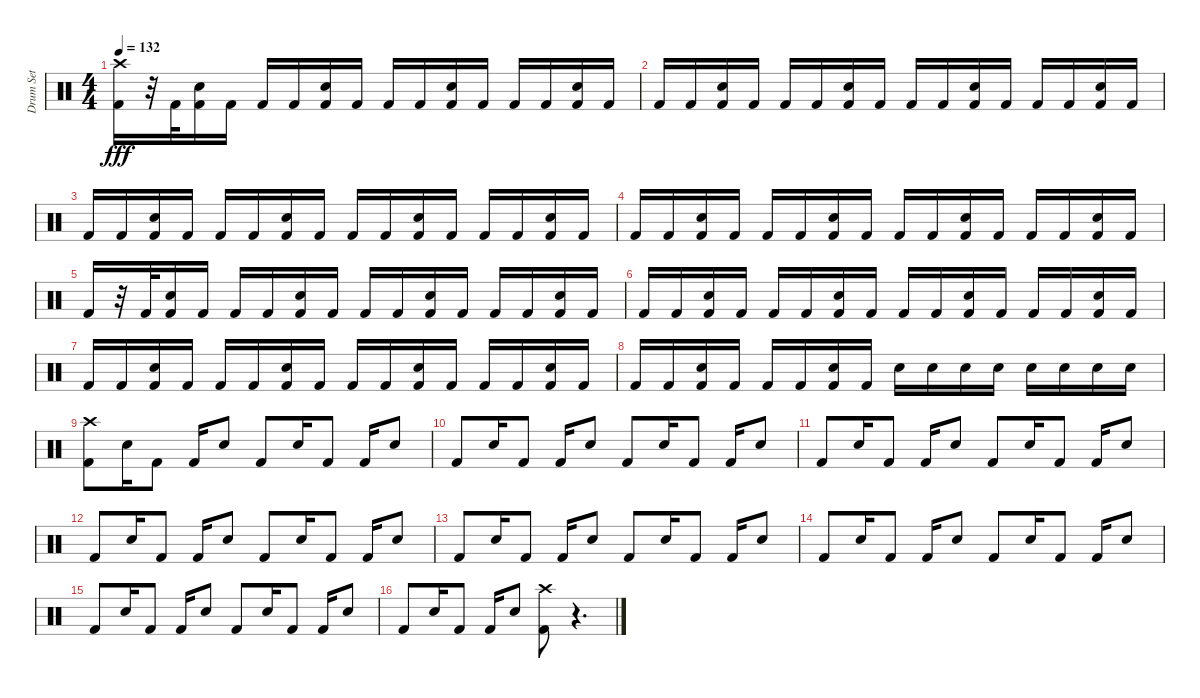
\track ("Drum Set" "Drum Set") {instrument percussion}
\staff {score}
\articulation defaults
\ts (4 4)
\tempo 132
\clef neutral
\ks c
("Crash high (hit)" "Kick (hit) 2").16{dy fff} r.32 "Kick (hit) 2".32 ("Electric Snare (hit)" "Kick (hit) 2").16 "Kick (hit) 2".16 "Kick (hit) 2".16 "Kick (hit) 2".16 ("Electric Snare (hit)" "Kick (hit) 2").16 "Kick (hit) 2".16 "Kick (hit) 2".16 "Kick (hit) 2".16 ("Electric Snare (hit)" "Kick (hit) 2").16 "Kick (hit) 2".16 "Kick (hit) 2".16 "Kick (hit) 2".16 ("Electric Snare (hit)" "Kick (hit) 2").16 "Kick (hit) 2".16 |
"Kick (hit) 2".16 "Kick (hit) 2".16 ("Electric Snare (hit)" "Kick (hit) 2").16 "Kick (hit) 2".16 "Kick (hit) 2".16 "Kick (hit) 2".16 ("Electric Snare (hit)" "Kick (hit) 2").16 "Kick (hit) 2".16 "Kick (hit) 2".16 "Kick (hit) 2".16 ("Electric Snare (hit)" "Kick (hit) 2").16 "Kick (hit) 2".16 "Kick (hit) 2".16 "Kick (hit) 2".16 ("Electric Snare (hit)" "Kick (hit) 2").16 "Kick (hit) 2".16 |
"Kick (hit) 2".16 "Kick (hit) 2".16 ("Electric Snare (hit)" "Kick (hit) 2").16 "Kick (hit) 2".16 "Kick (hit) 2".16 "Kick (hit) 2".16 ("Electric Snare (hit)" "Kick (hit) 2").16 "Kick (hit) 2".16 "Kick (hit) 2".16 "Kick (hit) 2".16 ("Electric Snare (hit)" "Kick (hit) 2").16 "Kick (hit) 2".16 "Kick (hit) 2".16 "Kick (hit) 2".16 ("Electric Snare (hit)" "Kick (hit) 2").16 "Kick (hit) 2".16 |
"Kick (hit) 2".16 "Kick (hit) 2".16 ("Electric Snare (hit)" "Kick (hit) 2").16 "Kick (hit) 2".16 "Kick (hit) 2".16 "Kick (hit) 2".16 ("Electric Snare (hit)" "Kick (hit) 2").16 "Kick (hit) 2".16 "Kick (hit) 2".16 "Kick (hit) 2".16 ("Electric Snare (hit)" "Kick (hit) 2").16 "Kick (hit) 2".16 "Kick (hit) 2".16 "Kick (hit) 2".16 ("Electric Snare (hit)" "Kick (hit) 2").16 "Kick (hit) 2".16 |
"Kick (hit) 2".16 r.32 "Kick (hit) 2".32 ("Electric Snare (hit)" "Kick (hit) 2").16 "Kick (hit) 2".16 "Kick (hit) 2".16 "Kick (hit) 2".16 ("Electric Snare (hit)" "Kick (hit) 2").16 "Kick (hit) 2".16 "Kick (hit) 2".16 "Kick (hit) 2".16 ("Electric Snare (hit)" "Kick (hit) 2").16 "Kick (hit) 2".16 "Kick (hit) 2".16 "Kick (hit) 2".16 ("Electric Snare (hit)" "Kick (hit) 2").16 "Kick (hit) 2".16 |
"Kick (hit) 2".16 "Kick (hit) 2".16 ("Electric Snare (hit)" "Kick (hit) 2").16 "Kick (hit) 2".16 "Kick (hit) 2".16 "Kick (hit) 2".16 ("Electric Snare (hit)" "Kick (hit) 2").16 "Kick (hit) 2".16 "Kick (hit) 2".16 "Kick (hit) 2".16 ("Electric Snare (hit)" "Kick (hit) 2").16 "Kick (hit) 2".16 "Kick (hit) 2".16 "Kick (hit) 2".16 ("Electric Snare (hit)" "Kick (hit) 2").16 "Kick (hit) 2".16 |
"Kick (hit) 2".16 "Kick (hit) 2".16 ("Electric Snare (hit)" "Kick (hit) 2").16 "Kick (hit) 2".16 "Kick (hit) 2".16 "Kick (hit) 2".16 ("Electric Snare (hit)" "Kick (hit) 2").16 "Kick (hit) 2".16 "Kick (hit) 2".16 "Kick (hit) 2".16 ("Electric Snare (hit)" "Kick (hit) 2").16 "Kick (hit) 2".16 "Kick (hit) 2".16 "Kick (hit) 2".16 ("Electric Snare (hit)" "Kick (hit) 2").16 "Kick (hit) 2".16 |
"Kick (hit) 2".16 "Kick (hit) 2".16 ("Electric Snare (hit)" "Kick (hit) 2").16 "Kick (hit) 2".16 "Kick (hit) 2".16 "Kick (hit) 2".16 ("Electric Snare (hit)" "Kick (hit) 2").16 "Kick (hit) 2".16 "Electric Snare (hit)".16 "Electric Snare (hit)".16 "Electric Snare (hit)".16 "Electric Snare (hit)".16 "Electric Snare (hit)".16 "Electric Snare (hit)".16 "Electric Snare (hit)".16 "Electric Snare (hit)".16 |
("Kick (hit) 2" "Crash high (hit)").8 "Electric Snare (hit)".16 "Kick (hit) 2".8 "Kick (hit) 2".16 "Electric Snare (hit)".8 "Kick (hit) 2".8 "Electric Snare (hit)".16 "Kick (hit) 2".8 "Kick (hit) 2".16 "Electric Snare (hit)".8 |
"Kick (hit) 2".8 "Electric Snare (hit)".16 "Kick (hit) 2".8 "Kick (hit) 2".16 "Electric Snare (hit)".8 "Kick (hit) 2".8 "Electric Snare (hit)".16 "Kick (hit) 2".8 "Kick (hit) 2".16 "Electric Snare (hit)".8 |
"Kick (hit) 2".8 "Electric Snare (hit)".16 "Kick (hit) 2".8 "Kick (hit) 2".16 "Electric Snare (hit)".8 "Kick (hit) 2".8 "Electric Snare (hit)".16 "Kick (hit) 2".8 "Kick (hit) 2".16 "Electric Snare (hit)".8 |
"Kick (hit) 2".8 "Electric Snare (hit)".16 "Kick (hit) 2".8 "Kick (hit) 2".16 "Electric Snare (hit)".8 "Kick (hit) 2".8 "Electric Snare (hit)".16 "Kick (hit) 2".8 "Kick (hit) 2".16 "Electric Snare (hit)".8 |
"Kick (hit) 2".8 "Electric Snare (hit)".16 "Kick (hit) 2".8 "Kick (hit) 2".16 "Electric Snare (hit)".8 "Kick (hit) 2".8 "Electric Snare (hit)".16 "Kick (hit) 2".8 "Kick (hit) 2".16 "Electric Snare (hit)".8 |
"Kick (hit) 2".8 "Electric Snare (hit)".16 "Kick (hit) 2".8 "Kick (hit) 2".16 "Electric Snare (hit)".8 "Kick (hit) 2".8 "Electric Snare (hit)".16 "Kick (hit) 2".8 "Kick (hit) 2".16 "Electric Snare (hit)".8 |
"Kick (hit) 2".8 "Electric Snare (hit)".16 "Kick (hit) 2".8 "Kick (hit) 2".16 "Electric Snare (hit)".8 "Kick (hit) 2".8 "Electric Snare (hit)".16 "Kick (hit) 2".8 "Kick (hit) 2".16 "Electric Snare (hit)".8 |
"Kick (hit) 2".8 "Electric Snare (hit)".16 "Kick (hit) 2".8 "Kick (hit) 2".16 "Electric Snare (hit)".8 ("Kick (hit) 2" "Crash high (hit)").8 r.4{d}
